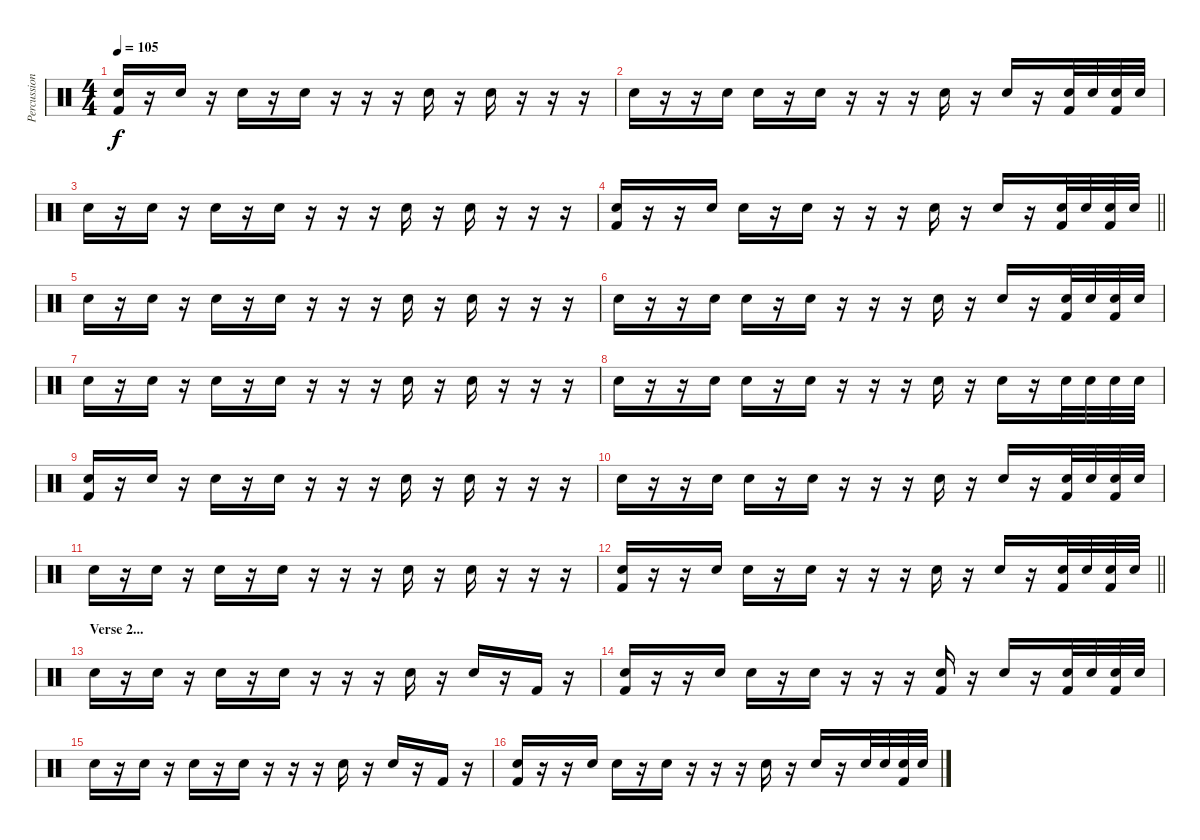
\track ("Percussion" "Percussion") {instrument percussion}
\staff {score}
\articulation defaults
\ts (4 4)
\tempo 105
\clef neutral
\ks c
("Snare (hit) 2" "Kick (hit) 2").16{dy f} r.16 "Snare (hit) 2".16 r.16 "Snare (hit) 2".16 r.16 "Snare (hit) 2".16 r.16 r.16 r.16 "Snare (hit) 2".16 r.16 "Snare (hit) 2".16 r.16 r.16 r.16 |
"Snare (hit) 2".16 r.16 r.16 "Snare (hit) 2".16 "Snare (hit) 2".16 r.16 "Snare (hit) 2".16 r.16 r.16 r.16 "Snare (hit) 2".16 r.16 "Snare (hit) 2".16 r.16 ("Snare (hit) 2" "Kick (hit) 2").32 "Snare (hit) 2".32 ("Snare (hit) 2" "Kick (hit) 2").32 "Snare (hit) 2".32 |
"Snare (hit) 2".16 r.16 "Snare (hit) 2".16 r.16 "Snare (hit) 2".16 r.16 "Snare (hit) 2".16 r.16 r.16 r.16 "Snare (hit) 2".16 r.16 "Snare (hit) 2".16 r.16 r.16 r.16 |
\barLineRight lightlight
("Snare (hit) 2" "Kick (hit) 2").16 r.16 r.16 "Snare (hit) 2".16 "Snare (hit) 2".16 r.16 "Snare (hit) 2".16 r.16 r.16 r.16 "Snare (hit) 2".16 r.16 "Snare (hit) 2".16 r.16 ("Snare (hit) 2" "Kick (hit) 2").32 "Snare (hit) 2".32 ("Snare (hit) 2" "Kick (hit) 2").32 "Snare (hit) 2".32 |
"Snare (hit) 2".16 r.16 "Snare (hit) 2".16 r.16 "Snare (hit) 2".16 r.16 "Snare (hit) 2".16 r.16 r.16 r.16 "Snare (hit) 2".16 r.16 "Snare (hit) 2".16 r.16 r.16 r.16 |
"Snare (hit) 2".16 r.16 r.16 "Snare (hit) 2".16 "Snare (hit) 2".16 r.16 "Snare (hit) 2".16 r.16 r.16 r.16 "Snare (hit) 2".16 r.16 "Snare (hit) 2".16 r.16 ("Snare (hit) 2" "Kick (hit) 2").32 "Snare (hit) 2".32 ("Snare (hit) 2" "Kick (hit) 2").32 "Snare (hit) 2".32 |
"Snare (hit) 2".16 r.16 "Snare (hit) 2".16 r.16 "Snare (hit) 2".16 r.16 "Snare (hit) 2".16 r.16 r.16 r.16 "Snare (hit) 2".16 r.16 "Snare (hit) 2".16 r.16 r.16 r.16 |
"Snare (hit) 2".16 r.16 r.16 "Snare (hit) 2".16 "Snare (hit) 2".16 r.16 "Snare (hit) 2".16 r.16 r.16 r.16 "Snare (hit) 2".16 r.16 "Snare (hit) 2".16 r.16 "Snare (hit) 2".32 "Snare (hit) 2".32 "Snare (hit) 2".32 "Snare (hit) 2".32 |
("Snare (hit) 2" "Kick (hit) 2").16 r.16 "Snare (hit) 2".16 r.16 "Snare (hit) 2".16 r.16 "Snare (hit) 2".16 r.16 r.16 r.16 "Snare (hit) 2".16 r.16 "Snare (hit) 2".16 r.16 r.16 r.16 |
"Snare (hit) 2".16 r.16 r.16 "Snare (hit) 2".16 "Snare (hit) 2".16 r.16 "Snare (hit) 2".16 r.16 r.16 r.16 "Snare (hit) 2".16 r.16 "Snare (hit) 2".16 r.16 ("Snare (hit) 2" "Kick (hit) 2").32 "Snare (hit) 2".32 ("Snare (hit) 2" "Kick (hit) 2").32 "Snare (hit) 2".32 |
"Snare (hit) 2".16 r.16 "Snare (hit) 2".16 r.16 "Snare (hit) 2".16 r.16 "Snare (hit) 2".16 r.16 r.16 r.16 "Snare (hit) 2".16 r.16 "Snare (hit) 2".16 r.16 r.16 r.16 |
\barLineRight lightlight
("Snare (hit) 2" "Kick (hit) 2").16 r.16 r.16 "Snare (hit) 2".16 "Snare (hit) 2".16 r.16 "Snare (hit) 2".16 r.16 r.16 r.16 "Snare (hit) 2".16 r.16 "Snare (hit) 2".16 r.16 ("Snare (hit) 2" "Kick (hit) 2").32 "Snare (hit) 2".32 ("Snare (hit) 2" "Kick (hit) 2").32 "Snare (hit) 2".32 |
\section ("" "Verse 2...")
"Snare (hit) 2".16 r.16 "Snare (hit) 2".16 r.16 "Snare (hit) 2".16 r.16 "Snare (hit) 2".16 r.16 r.16 r.16 "Snare (hit) 2".16 r.16 "Snare (hit) 2".16 r.16 "Kick (hit) 2".16 r.16 |
("Snare (hit) 2" "Kick (hit) 2").16 r.16 r.16 "Snare (hit) 2".16 "Snare (hit) 2".16 r.16 "Snare (hit) 2".16 r.16 r.16 r.16 ("Snare (hit) 2" "Kick (hit) 2").16 r.16 "Snare (hit) 2".16 r.16 ("Snare (hit) 2" "Kick (hit) 2").32 "Snare (hit) 2".32 ("Snare (hit) 2" "Kick (hit) 2").32 "Snare (hit) 2".32 |
"Snare (hit) 2".16 r.16 "Snare (hit) 2".16 r.16 "Snare (hit) 2".16 r.16 "Snare (hit) 2".16 r.16 r.16 r.16 "Snare (hit) 2".16 r.16 "Snare (hit) 2".16 r.16 "Kick (hit) 2".16 r.16 |
("Snare (hit) 2" "Kick (hit) 2").16 r.16 r.16 "Snare (hit) 2".16 "Snare (hit) 2".16 r.16 "Snare (hit) 2".16 r.16 r.16 r.16 "Snare (hit) 2".16 r.16 "Snare (hit) 2".16 r.16 "Snare (hit) 2".32 "Snare (hit) 2".32 ("Snare (hit) 2" "Kick (hit) 2").32 "Snare (hit) 2".32
